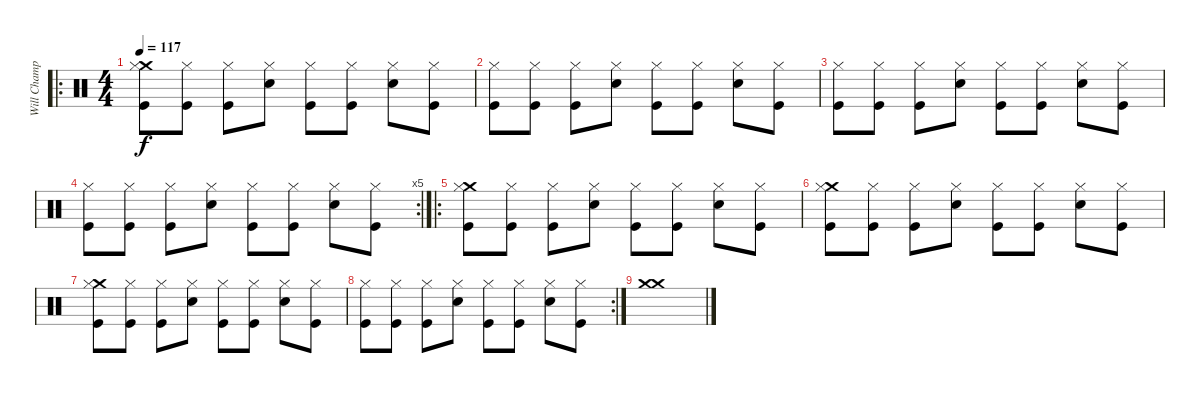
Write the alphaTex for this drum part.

\track ("Will Champion - Drums" "Will Champ") {instrument percussion}
\staff {score}
\articulation defaults
\ro
\ts (4 4)
\tempo 117
\clef neutral
\ks c
("Crash medium (hit)" "Kick (hit)" "Hi-Hat (closed)").8{dy f} ("Kick (hit)" "Hi-Hat (closed)").8 ("Kick (hit)" "Hi-Hat (closed)").8 ("Snare (hit) 2" "Hi-Hat (closed)").8 ("Kick (hit)" "Hi-Hat (closed)").8 ("Kick (hit)" "Hi-Hat (closed)").8 ("Snare (hit) 2" "Hi-Hat (closed)").8 ("Kick (hit)" "Hi-Hat (closed)").8 |
("Kick (hit)" "Hi-Hat (closed)").8 ("Kick (hit)" "Hi-Hat (closed)").8 ("Kick (hit)" "Hi-Hat (closed)").8 ("Snare (hit) 2" "Hi-Hat (closed)").8 ("Kick (hit)" "Hi-Hat (closed)").8 ("Kick (hit)" "Hi-Hat (closed)").8 ("Snare (hit) 2" "Hi-Hat (closed)").8 ("Kick (hit)" "Hi-Hat (closed)").8 |
("Kick (hit)" "Hi-Hat (closed)").8 ("Kick (hit)" "Hi-Hat (closed)").8 ("Kick (hit)" "Hi-Hat (closed)").8 ("Snare (hit) 2" "Hi-Hat (closed)").8 ("Kick (hit)" "Hi-Hat (closed)").8 ("Kick (hit)" "Hi-Hat (closed)").8 ("Snare (hit) 2" "Hi-Hat (closed)").8 ("Kick (hit)" "Hi-Hat (closed)").8 |
\rc 5
("Kick (hit)" "Hi-Hat (closed)").8 ("Kick (hit)" "Hi-Hat (closed)").8 ("Kick (hit)" "Hi-Hat (closed)").8 ("Snare (hit) 2" "Hi-Hat (closed)").8 ("Kick (hit)" "Hi-Hat (closed)").8 ("Kick (hit)" "Hi-Hat (closed)").8 ("Snare (hit) 2" "Hi-Hat (closed)").8 ("Kick (hit)" "Hi-Hat (closed)").8 |
\ro
("Crash medium (hit)" "Kick (hit)" "Hi-Hat (closed)").8 ("Kick (hit)" "Hi-Hat (closed)").8 ("Kick (hit)" "Hi-Hat (closed)").8 ("Snare (hit) 2" "Hi-Hat (closed)").8 ("Kick (hit)" "Hi-Hat (closed)").8 ("Kick (hit)" "Hi-Hat (closed)").8 ("Snare (hit) 2" "Hi-Hat (closed)").8 ("Kick (hit)" "Hi-Hat (closed)").8 |
("Crash medium (hit)" "Kick (hit)" "Hi-Hat (closed)").8 ("Kick (hit)" "Hi-Hat (closed)").8 ("Kick (hit)" "Hi-Hat (closed)").8 ("Snare (hit) 2" "Hi-Hat (closed)").8 ("Kick (hit)" "Hi-Hat (closed)").8 ("Kick (hit)" "Hi-Hat (closed)").8 ("Snare (hit) 2" "Hi-Hat (closed)").8 ("Kick (hit)" "Hi-Hat (closed)").8 |
("Crash medium (hit)" "Kick (hit)" "Hi-Hat (closed)").8 ("Kick (hit)" "Hi-Hat (closed)").8 ("Kick (hit)" "Hi-Hat (closed)").8 ("Snare (hit) 2" "Hi-Hat (closed)").8 ("Kick (hit)" "Hi-Hat (closed)").8 ("Kick (hit)" "Hi-Hat (closed)").8 ("Snare (hit) 2" "Hi-Hat (closed)").8 ("Kick (hit)" "Hi-Hat (closed)").8 |
\rc 2
("Kick (hit)" "Hi-Hat (closed)").8 ("Kick (hit)" "Hi-Hat (closed)").8 ("Kick (hit)" "Hi-Hat (closed)").8 ("Snare (hit) 2" "Hi-Hat (closed)").8 ("Kick (hit)" "Hi-Hat (closed)").8 ("Kick (hit)" "Hi-Hat (closed)").8 ("Snare (hit) 2" "Hi-Hat (closed)").8 ("Kick (hit)" "Hi-Hat (closed)").8 |
("Crash medium (hit)" "Crash medium (hit)").1
